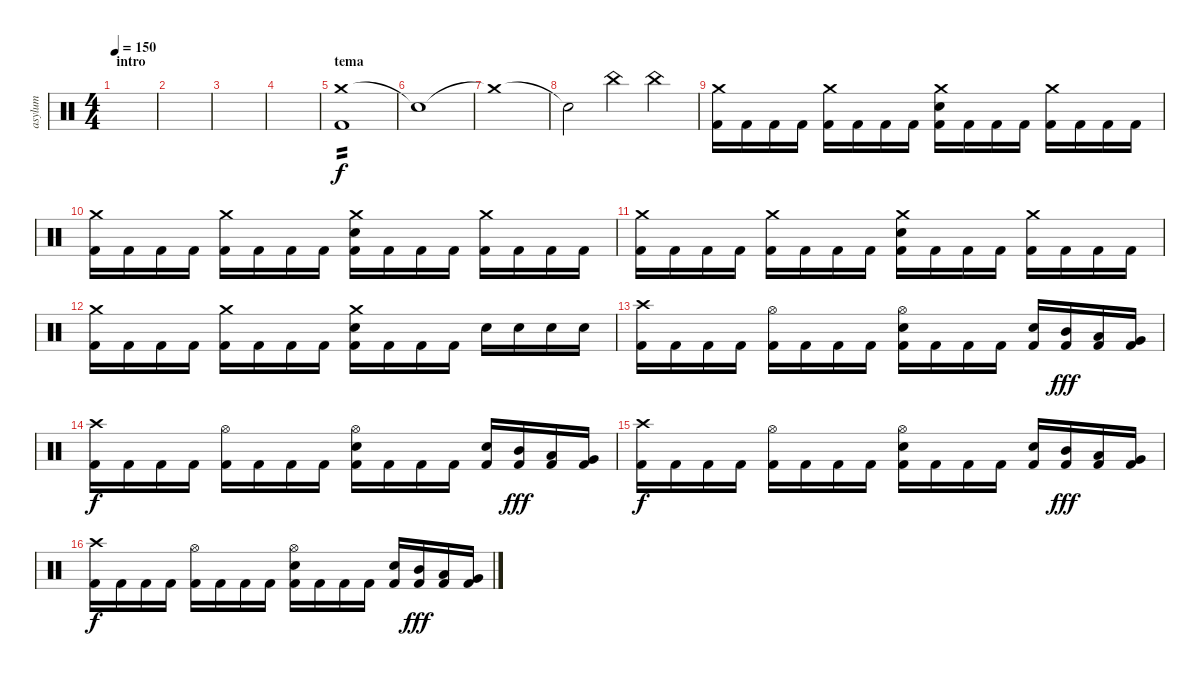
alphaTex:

\track ("asylum" "asylum") {instrument percussion}
\staff {score}
\articulation defaults
\ts (4 4)
\section ("" "intro")
\tempo 150
\clef neutral
\ks c
|
|
|
|
\section ("" "tema")
("Crash medium (hit)" "Kick (hit) 2").1{tp 2} |
"Snare (hit)"{t}.1 |
"Crash medium (hit)"{t}.1 |
"Snare (hit)"{t}.2 "China (hit)".4 "China (hit)".4 |
("Crash medium (hit)" "Kick (hit) 2").16 "Kick (hit) 2".16 "Kick (hit) 2".16 "Kick (hit) 2".16 ("Crash medium (hit)" "Kick (hit) 2").16 "Kick (hit) 2".16 "Kick (hit) 2".16 "Kick (hit) 2".16 ("Crash medium (hit)" "Electric Snare (hit)" "Kick (hit) 2").16 "Kick (hit) 2".16 "Kick (hit) 2".16 "Kick (hit) 2".16 ("Crash medium (hit)" "Kick (hit) 2").16 "Kick (hit) 2".16 "Kick (hit) 2".16 "Kick (hit) 2".16 |
("Crash medium (hit)" "Kick (hit) 2").16 "Kick (hit) 2".16 "Kick (hit) 2".16 "Kick (hit) 2".16 ("Crash medium (hit)" "Kick (hit) 2").16 "Kick (hit) 2".16 "Kick (hit) 2".16 "Kick (hit) 2".16 ("Crash medium (hit)" "Electric Snare (hit)" "Kick (hit) 2").16 "Kick (hit) 2".16 "Kick (hit) 2".16 "Kick (hit) 2".16 ("Crash medium (hit)" "Kick (hit) 2").16 "Kick (hit) 2".16 "Kick (hit) 2".16 "Kick (hit) 2".16 |
("Crash medium (hit)" "Kick (hit) 2").16 "Kick (hit) 2".16 "Kick (hit) 2".16 "Kick (hit) 2".16 ("Crash medium (hit)" "Kick (hit) 2").16 "Kick (hit) 2".16 "Kick (hit) 2".16 "Kick (hit) 2".16 ("Crash medium (hit)" "Electric Snare (hit)" "Kick (hit) 2").16 "Kick (hit) 2".16 "Kick (hit) 2".16 "Kick (hit) 2".16 ("Crash medium (hit)" "Kick (hit) 2").16 "Kick (hit) 2".16 "Kick (hit) 2".16 "Kick (hit) 2".16 |
("Crash medium (hit)" "Kick (hit) 2").16 "Kick (hit) 2".16 "Kick (hit) 2".16 "Kick (hit) 2".16 ("Crash medium (hit)" "Kick (hit) 2").16 "Kick (hit) 2".16 "Kick (hit) 2".16 "Kick (hit) 2".16 ("Crash medium (hit)" "Electric Snare (hit)" "Kick (hit) 2").16 "Kick (hit) 2".16 "Kick (hit) 2".16 "Kick (hit) 2".16 "Electric Snare (hit)".16 "Electric Snare (hit)".16 "Electric Snare (hit)".16 "Electric Snare (hit)".16 |
("Crash high (hit)" "Kick (hit) 2").16 "Kick (hit) 2".16 "Kick (hit) 2".16 "Kick (hit) 2".16 ("Hi-Hat (open)" "Kick (hit) 2").16 "Kick (hit) 2".16 "Kick (hit) 2".16 "Kick (hit) 2".16 ("Hi-Hat (open)" "Electric Snare (hit)" "Kick (hit) 2").16 "Kick (hit) 2".16 "Kick (hit) 2".16 "Kick (hit) 2".16 ("Electric Snare (hit)" "Kick (hit) 2").16 ("Mid Tom (hit)" "Kick (hit) 2").16{dy fff} ("Low Tom (hit)" "Kick (hit) 2").16 ("Very Low Tom (hit)" "Kick (hit) 2").16 |
("Crash high (hit)" "Kick (hit) 2").16{dy f} "Kick (hit) 2".16 "Kick (hit) 2".16 "Kick (hit) 2".16 ("Hi-Hat (open)" "Kick (hit) 2").16 "Kick (hit) 2".16 "Kick (hit) 2".16 "Kick (hit) 2".16 ("Hi-Hat (open)" "Electric Snare (hit)" "Kick (hit) 2").16 "Kick (hit) 2".16 "Kick (hit) 2".16 "Kick (hit) 2".16 ("Electric Snare (hit)" "Kick (hit) 2").16 ("Mid Tom (hit)" "Kick (hit) 2").16{dy fff} ("Low Tom (hit)" "Kick (hit) 2").16 ("Very Low Tom (hit)" "Kick (hit) 2").16 |
("Crash high (hit)" "Kick (hit) 2").16{dy f} "Kick (hit) 2".16 "Kick (hit) 2".16 "Kick (hit) 2".16 ("Hi-Hat (open)" "Kick (hit) 2").16 "Kick (hit) 2".16 "Kick (hit) 2".16 "Kick (hit) 2".16 ("Hi-Hat (open)" "Electric Snare (hit)" "Kick (hit) 2").16 "Kick (hit) 2".16 "Kick (hit) 2".16 "Kick (hit) 2".16 ("Electric Snare (hit)" "Kick (hit) 2").16 ("Mid Tom (hit)" "Kick (hit) 2").16{dy fff} ("Low Tom (hit)" "Kick (hit) 2").16 ("Very Low Tom (hit)" "Kick (hit) 2").16 |
("Crash high (hit)" "Kick (hit) 2").16{dy f} "Kick (hit) 2".16 "Kick (hit) 2".16 "Kick (hit) 2".16 ("Hi-Hat (open)" "Kick (hit) 2").16 "Kick (hit) 2".16 "Kick (hit) 2".16 "Kick (hit) 2".16 ("Hi-Hat (open)" "Electric Snare (hit)" "Kick (hit) 2").16 "Kick (hit) 2".16 "Kick (hit) 2".16 "Kick (hit) 2".16 ("Electric Snare (hit)" "Kick (hit) 2").16 ("Mid Tom (hit)" "Kick (hit) 2").16{dy fff} ("Low Tom (hit)" "Kick (hit) 2").16 ("Very Low Tom (hit)" "Kick (hit) 2").16
